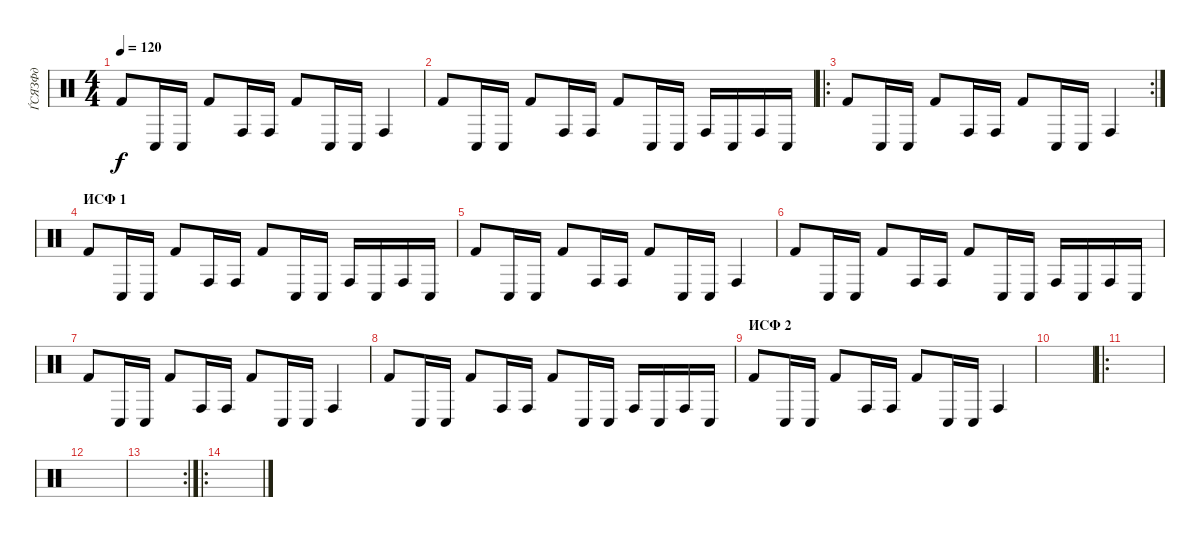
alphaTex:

\track ("ЃСЯЗФд" "ЃСЯЗФд") {instrument percussion}
\staff {score}
\articulation defaults
\ts (4 4)
\tempo 120
\clef neutral
\ks aminor "Kick (hit) 2".8{dy f} "Conga low (hit)".16 "Conga low (hit)".16 "Kick (hit) 2".8 "Conga high (hit)".16 "Conga high (hit)".16 "Kick (hit) 2".8 "Conga low (hit)".16 "Conga low (hit)".16 "Conga high (hit)".4
|
"Kick (hit) 2".8 "Conga low (hit)".16 "Conga low (hit)".16 "Kick (hit) 2".8 "Conga high (hit)".16 "Conga high (hit)".16 "Kick (hit) 2".8 "Conga low (hit)".16 "Conga low (hit)".16 "Conga high (hit)".16 "Conga low (hit)".16 "Conga high (hit)".16 "Conga low (hit)".16 |
\ro
\rc 2 "Kick (hit) 2".8 "Conga low (hit)".16 "Conga low (hit)".16 "Kick (hit) 2".8 "Conga high (hit)".16 "Conga high (hit)".16 "Kick (hit) 2".8 "Conga low (hit)".16 "Conga low (hit)".16 "Conga high (hit)".4
|
\section ("" "ИСФ 1")
"Kick (hit) 2".8 "Conga low (hit)".16 "Conga low (hit)".16 "Kick (hit) 2".8 "Conga high (hit)".16 "Conga high (hit)".16 "Kick (hit) 2".8 "Conga low (hit)".16 "Conga low (hit)".16 "Conga high (hit)".16 "Conga low (hit)".16 "Conga high (hit)".16 "Conga low (hit)".16 |
"Kick (hit) 2".8 "Conga low (hit)".16 "Conga low (hit)".16 "Kick (hit) 2".8 "Conga high (hit)".16 "Conga high (hit)".16 "Kick (hit) 2".8 "Conga low (hit)".16 "Conga low (hit)".16 "Conga high (hit)".4 |
"Kick (hit) 2".8 "Conga low (hit)".16 "Conga low (hit)".16 "Kick (hit) 2".8 "Conga high (hit)".16 "Conga high (hit)".16 "Kick (hit) 2".8 "Conga low (hit)".16 "Conga low (hit)".16 "Conga high (hit)".16 "Conga low (hit)".16 "Conga high (hit)".16 "Conga low (hit)".16 |
"Kick (hit) 2".8 "Conga low (hit)".16 "Conga low (hit)".16 "Kick (hit) 2".8 "Conga high (hit)".16 "Conga high (hit)".16 "Kick (hit) 2".8 "Conga low (hit)".16 "Conga low (hit)".16 "Conga high (hit)".4 |
"Kick (hit) 2".8 "Conga low (hit)".16 "Conga low (hit)".16 "Kick (hit) 2".8 "Conga high (hit)".16 "Conga high (hit)".16 "Kick (hit) 2".8 "Conga low (hit)".16 "Conga low (hit)".16 "Conga high (hit)".16 "Conga low (hit)".16 "Conga high (hit)".16 "Conga low (hit)".16 |
\section ("" "ИСФ 2")
"Kick (hit) 2".8 "Conga low (hit)".16 "Conga low (hit)".16 "Kick (hit) 2".8 "Conga high (hit)".16 "Conga high (hit)".16 "Kick (hit) 2".8 "Conga low (hit)".16 "Conga low (hit)".16 "Conga high (hit)".4 |
|
\ro
|
|
\rc 2
|
\ro
